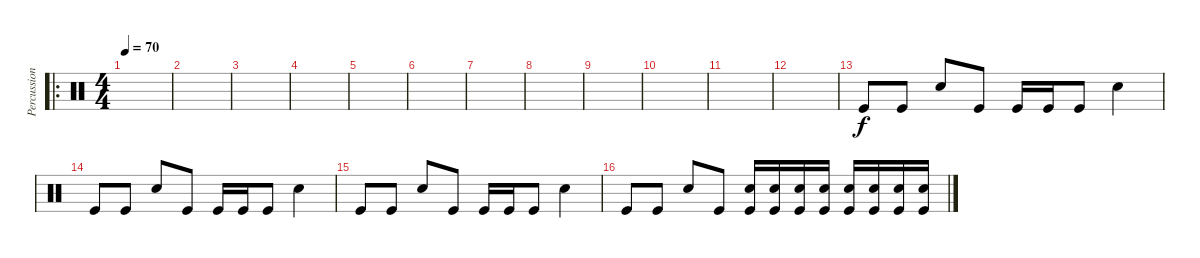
\track ("Percussion" "Percussion") {instrument percussion}
\staff {score}
\articulation defaults
\ro
\ts (4 4)
\tempo 70
\clef neutral
\ks c
|
|
|
|
|
|
|
|
|
|
|
|
"Kick (hit)".8 "Kick (hit)".8 "Hand Clap (hit)".8 "Kick (hit)".8 "Kick (hit)".16 "Kick (hit)".16 "Kick (hit)".8 "Hand Clap (hit)".4 |
"Kick (hit)".8 "Kick (hit)".8 "Hand Clap (hit)".8 "Kick (hit)".8 "Kick (hit)".16 "Kick (hit)".16 "Kick (hit)".8 "Hand Clap (hit)".4 |
"Kick (hit)".8 "Kick (hit)".8 "Hand Clap (hit)".8 "Kick (hit)".8 "Kick (hit)".16 "Kick (hit)".16 "Kick (hit)".8 "Hand Clap (hit)".4 |
"Kick (hit)".8 "Kick (hit)".8 "Hand Clap (hit)".8 "Kick (hit)".8 ("Kick (hit)" "Hand Clap (hit)").16 ("Kick (hit)" "Hand Clap (hit)").16 ("Kick (hit)" "Hand Clap (hit)").16 ("Hand Clap (hit)" "Kick (hit)").16 ("Kick (hit)" "Hand Clap (hit)").16 ("Kick (hit)" "Hand Clap (hit)").16 ("Kick (hit)" "Hand Clap (hit)").16 ("Kick (hit)" "Hand Clap (hit)").16
